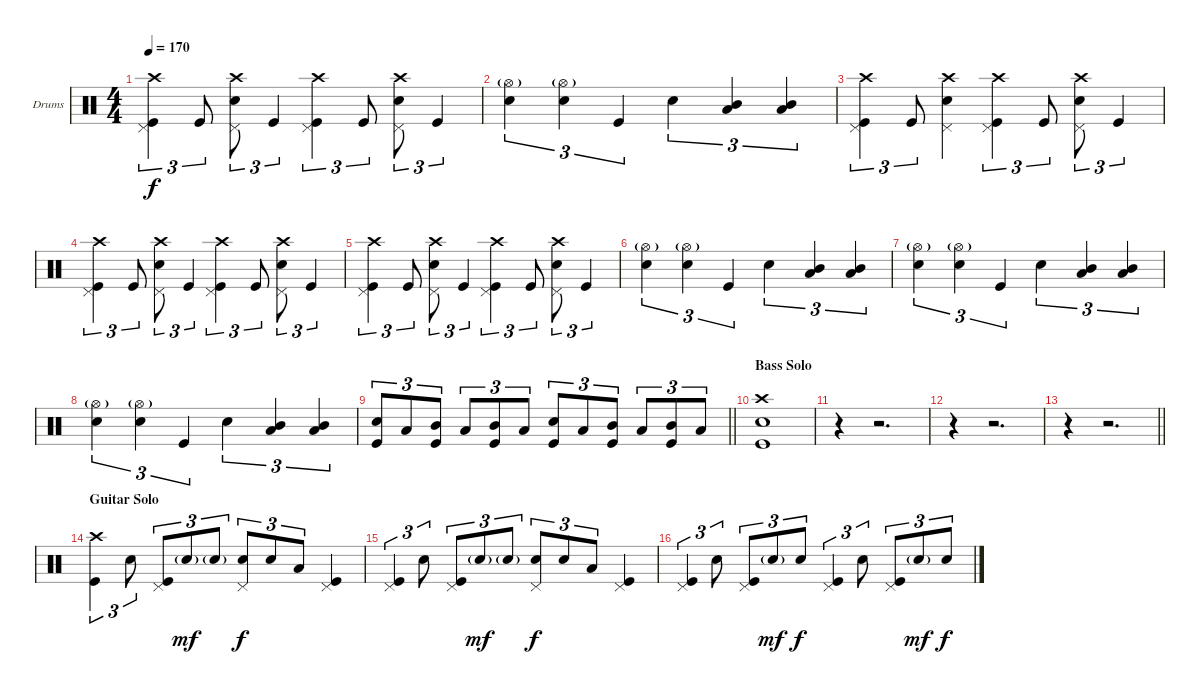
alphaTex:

\bracketExtendMode groupsimilarinstruments
\firstSystemTrackNameOrientation horizontal
\otherSystemsTrackNameOrientation horizontal
\track ("Dave Grohl [Drumms]" "Drums") {instrument percussion}
\staff {score}
\articulation defaults
\ts (4 4)
\tempo 170
\clef neutral
\ks c
("Crash high (hit)" "Pedal Hi-Hat (hit)" "Kick (hit)").4{tu (3 2) dy f} "Kick (hit)".8{tu (3 2)} ("Crash high (hit)" "Pedal Hi-Hat (hit)" "Snare (hit) 2").8{tu (3 2)} "Kick (hit)".4{tu (3 2)} ("Crash high (hit)" "Pedal Hi-Hat (hit)" "Kick (hit)").4{tu (3 2)} "Kick (hit)".8{tu (3 2)} ("Crash high (hit)" "Pedal Hi-Hat (hit)" "Snare (hit) 2").8{tu (3 2)} "Kick (hit)".4{tu (3 2)} |
("Hi-Hat (open)"{g} "Snare (hit) 2").4{tu (3 2)} ("Hi-Hat (open)"{g} "Snare (hit) 2").4{tu (3 2)} "Kick (hit)".4{tu (3 2)} "Snare (hit) 2".4{tu (3 2)} ("Mid Tom (hit)" "Low Tom (hit)").4{tu (3 2)} ("Mid Tom (hit)" "Low Tom (hit)").4{tu (3 2)} |
("Crash high (hit)" "Pedal Hi-Hat (hit)" "Kick (hit)").4{tu (3 2)} "Kick (hit)".8{tu (3 2)} ("Crash high (hit)" "Pedal Hi-Hat (hit)" "Snare (hit) 2").4 ("Crash high (hit)" "Pedal Hi-Hat (hit)" "Kick (hit)").4{tu (3 2)} "Kick (hit)".8{tu (3 2)} ("Crash high (hit)" "Pedal Hi-Hat (hit)" "Snare (hit) 2").8{tu (3 2)} "Kick (hit)".4{tu (3 2)} |
("Crash high (hit)" "Pedal Hi-Hat (hit)" "Kick (hit)").4{tu (3 2)} "Kick (hit)".8{tu (3 2)} ("Crash high (hit)" "Pedal Hi-Hat (hit)" "Snare (hit) 2").8{tu (3 2)} "Kick (hit)".4{tu (3 2)} ("Crash high (hit)" "Pedal Hi-Hat (hit)" "Kick (hit)").4{tu (3 2)} "Kick (hit)".8{tu (3 2)} ("Crash high (hit)" "Pedal Hi-Hat (hit)" "Snare (hit) 2").8{tu (3 2)} "Kick (hit)".4{tu (3 2)} |
("Crash high (hit)" "Pedal Hi-Hat (hit)" "Kick (hit)").4{tu (3 2)} "Kick (hit)".8{tu (3 2)} ("Crash high (hit)" "Pedal Hi-Hat (hit)" "Snare (hit) 2").8{tu (3 2)} "Kick (hit)".4{tu (3 2)} ("Crash high (hit)" "Pedal Hi-Hat (hit)" "Kick (hit)").4{tu (3 2)} "Kick (hit)".8{tu (3 2)} ("Crash high (hit)" "Pedal Hi-Hat (hit)" "Snare (hit) 2").8{tu (3 2)} "Kick (hit)".4{tu (3 2)} |
("Hi-Hat (open)"{g} "Snare (hit) 2").4{tu (3 2)} ("Hi-Hat (open)"{g} "Snare (hit) 2").4{tu (3 2)} "Kick (hit)".4{tu (3 2)} "Snare (hit) 2".4{tu (3 2)} ("Mid Tom (hit)" "Low Tom (hit)").4{tu (3 2)} ("Mid Tom (hit)" "Low Tom (hit)").4{tu (3 2)} |
("Hi-Hat (open)"{g} "Snare (hit) 2").4{tu (3 2)} ("Hi-Hat (open)"{g} "Snare (hit) 2").4{tu (3 2)} "Kick (hit)".4{tu (3 2)} "Snare (hit) 2".4{tu (3 2)} ("Mid Tom (hit)" "Low Tom (hit)").4{tu (3 2)} ("Mid Tom (hit)" "Low Tom (hit)").4{tu (3 2)} |
("Hi-Hat (open)"{g} "Snare (hit) 2").4{tu (3 2)} ("Hi-Hat (open)"{g} "Snare (hit) 2").4{tu (3 2)} "Kick (hit)".4{tu (3 2)} "Snare (hit) 2".4{tu (3 2)} ("Mid Tom (hit)" "Low Tom (hit)").4{tu (3 2)} ("Mid Tom (hit)" "Low Tom (hit)").4{tu (3 2)} |
\barLineRight lightlight
("Snare (hit) 2" "Kick (hit)").8{tu (3 2)} "Low Tom (hit)".8{tu (3 2)} ("Mid Tom (hit)" "Kick (hit)").8{tu (3 2)} "Low Tom (hit)".8{tu (3 2)} ("Mid Tom (hit)" "Kick (hit)").8{tu (3 2)} "Low Tom (hit)".8{tu (3 2)} ("Snare (hit) 2" "Kick (hit)").8{tu (3 2)} "Low Tom (hit)".8{tu (3 2)} ("Mid Tom (hit)" "Kick (hit)").8{tu (3 2)} "Low Tom (hit)".8{tu (3 2)} ("Mid Tom (hit)" "Kick (hit)").8{tu (3 2)} "Low Tom (hit)".8{tu (3 2)} |
\section ("" "Bass Solo")
("Crash high (hit)" "Snare (hit) 2" "Kick (hit)").1 |
r.4 r.2{d} |
r.4 r.2{d} |
\barLineRight lightlight
r.4 r.2{d} |
\section ("" "Guitar Solo")
("Crash high (hit)" "Kick (hit)").4{tu (3 2)} "Snare (hit) 2".8{tu (3 2)} ("Pedal Hi-Hat (hit)" "Kick (hit)").8{tu (3 2)} "Snare (hit) 2"{g}.8{tu (3 2) dy mf} "Snare (hit) 2"{g}.8{tu (3 2)} ("Pedal Hi-Hat (hit)" "Snare (hit) 2").8{tu (3 2) dy f} "Snare (hit) 2".8{tu (3 2)} "Low Tom (hit)".8{tu (3 2)} ("Pedal Hi-Hat (hit)" "Kick (hit)").4 |
("Pedal Hi-Hat (hit)" "Kick (hit)").4{tu (3 2)} "Snare (hit) 2".8{tu (3 2)} ("Pedal Hi-Hat (hit)" "Kick (hit)").8{tu (3 2)} "Snare (hit) 2"{g}.8{tu (3 2) dy mf} "Snare (hit) 2"{g}.8{tu (3 2)} ("Pedal Hi-Hat (hit)" "Snare (hit) 2").8{tu (3 2) dy f} "Snare (hit) 2".8{tu (3 2)} "Low Tom (hit)".8{tu (3 2)} ("Pedal Hi-Hat (hit)" "Kick (hit)").4 |
("Pedal Hi-Hat (hit)" "Kick (hit)").4{tu (3 2)} "Snare (hit) 2".8{tu (3 2)} ("Pedal Hi-Hat (hit)" "Kick (hit)").8{tu (3 2)} "Snare (hit) 2"{g}.8{tu (3 2) dy mf} "Snare (hit) 2".8{tu (3 2) dy f} ("Pedal Hi-Hat (hit)" "Kick (hit)").4{tu (3 2)} "Snare (hit) 2".8{tu (3 2)} ("Pedal Hi-Hat (hit)" "Kick (hit)").8{tu (3 2)} "Snare (hit) 2"{g}.8{tu (3 2) dy mf} "Snare (hit) 2".8{tu (3 2) dy f}
